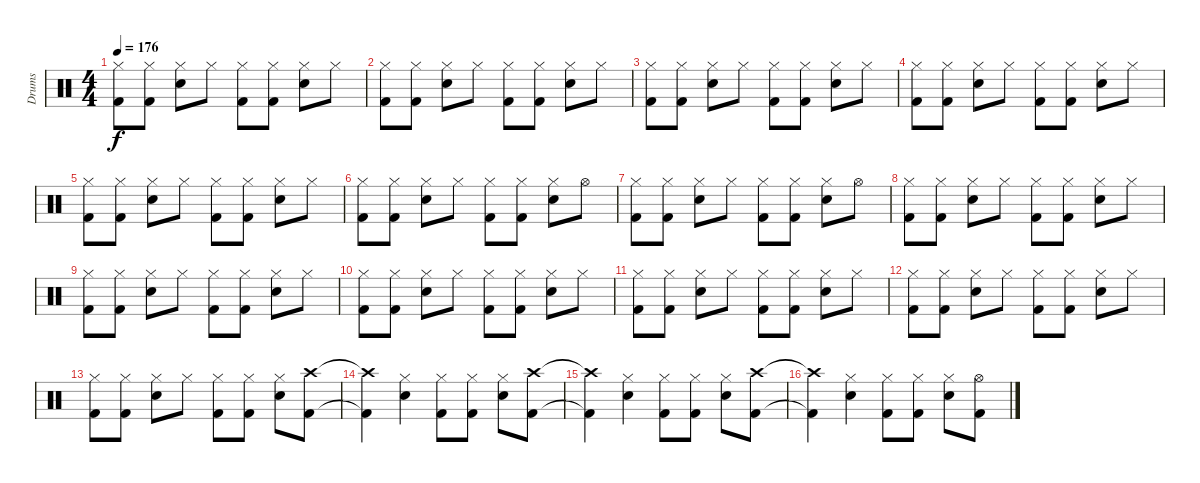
\track ("Drums" "Drums") {instrument percussion}
\staff {score}
\articulation defaults
\ts (4 4)
\tempo 176
\clef neutral
\ks c
("Hi-Hat (closed)" "Kick (hit) 2").8{dy f} ("Hi-Hat (closed)" "Kick (hit) 2").8 ("Hi-Hat (closed)" "Snare (hit) 2").8 "Hi-Hat (closed)".8 ("Hi-Hat (closed)" "Kick (hit) 2").8 ("Hi-Hat (closed)" "Kick (hit) 2").8 ("Hi-Hat (closed)" "Snare (hit) 2").8 "Hi-Hat (closed)".8 |
("Hi-Hat (closed)" "Kick (hit) 2").8 ("Hi-Hat (closed)" "Kick (hit) 2").8 ("Hi-Hat (closed)" "Snare (hit) 2").8 "Hi-Hat (closed)".8 ("Hi-Hat (closed)" "Kick (hit) 2").8 ("Hi-Hat (closed)" "Kick (hit) 2").8 ("Hi-Hat (closed)" "Snare (hit) 2").8 "Hi-Hat (closed)".8 |
("Hi-Hat (closed)" "Kick (hit) 2").8 ("Hi-Hat (closed)" "Kick (hit) 2").8 ("Hi-Hat (closed)" "Snare (hit) 2").8 "Hi-Hat (closed)".8 ("Hi-Hat (closed)" "Kick (hit) 2").8 ("Hi-Hat (closed)" "Kick (hit) 2").8 ("Hi-Hat (closed)" "Snare (hit) 2").8 "Hi-Hat (closed)".8 |
("Hi-Hat (closed)" "Kick (hit) 2").8 ("Hi-Hat (closed)" "Kick (hit) 2").8 ("Hi-Hat (closed)" "Snare (hit) 2").8 "Hi-Hat (closed)".8 ("Hi-Hat (closed)" "Kick (hit) 2").8 ("Hi-Hat (closed)" "Kick (hit) 2").8 ("Hi-Hat (closed)" "Snare (hit) 2").8 "Hi-Hat (closed)".8 |
("Hi-Hat (closed)" "Kick (hit) 2").8 ("Hi-Hat (closed)" "Kick (hit) 2").8 ("Hi-Hat (closed)" "Snare (hit) 2").8 "Hi-Hat (closed)".8 ("Hi-Hat (closed)" "Kick (hit) 2").8 ("Hi-Hat (closed)" "Kick (hit) 2").8 ("Hi-Hat (closed)" "Snare (hit) 2").8 "Hi-Hat (closed)".8 |
("Hi-Hat (closed)" "Kick (hit) 2").8 ("Hi-Hat (closed)" "Kick (hit) 2").8 ("Hi-Hat (closed)" "Snare (hit) 2").8 "Hi-Hat (closed)".8 ("Hi-Hat (closed)" "Kick (hit) 2").8 ("Hi-Hat (closed)" "Kick (hit) 2").8 ("Hi-Hat (closed)" "Snare (hit) 2").8 "Hi-Hat (open)".8 |
("Hi-Hat (closed)" "Kick (hit) 2").8 ("Hi-Hat (closed)" "Kick (hit) 2").8 ("Hi-Hat (closed)" "Snare (hit) 2").8 "Hi-Hat (closed)".8 ("Hi-Hat (closed)" "Kick (hit) 2").8 ("Hi-Hat (closed)" "Kick (hit) 2").8 ("Hi-Hat (closed)" "Snare (hit) 2").8 "Hi-Hat (open)".8 |
("Hi-Hat (closed)" "Kick (hit) 2").8 ("Hi-Hat (closed)" "Kick (hit) 2").8 ("Hi-Hat (closed)" "Snare (hit) 2").8 "Hi-Hat (closed)".8 ("Hi-Hat (closed)" "Kick (hit) 2").8 ("Hi-Hat (closed)" "Kick (hit) 2").8 ("Hi-Hat (closed)" "Snare (hit) 2").8 "Hi-Hat (closed)".8 |
("Hi-Hat (closed)" "Kick (hit) 2").8 ("Hi-Hat (closed)" "Kick (hit) 2").8 ("Hi-Hat (closed)" "Snare (hit) 2").8 "Hi-Hat (closed)".8 ("Hi-Hat (closed)" "Kick (hit) 2").8 ("Hi-Hat (closed)" "Kick (hit) 2").8 ("Hi-Hat (closed)" "Snare (hit) 2").8 "Hi-Hat (closed)".8 |
("Hi-Hat (closed)" "Kick (hit) 2").8 ("Hi-Hat (closed)" "Kick (hit) 2").8 ("Hi-Hat (closed)" "Snare (hit) 2").8 "Hi-Hat (closed)".8 ("Hi-Hat (closed)" "Kick (hit) 2").8 ("Hi-Hat (closed)" "Kick (hit) 2").8 ("Hi-Hat (closed)" "Snare (hit) 2").8 "Hi-Hat (closed)".8 |
("Hi-Hat (closed)" "Kick (hit) 2").8 ("Hi-Hat (closed)" "Kick (hit) 2").8 ("Hi-Hat (closed)" "Snare (hit) 2").8 "Hi-Hat (closed)".8 ("Hi-Hat (closed)" "Kick (hit) 2").8 ("Hi-Hat (closed)" "Kick (hit) 2").8 ("Hi-Hat (closed)" "Snare (hit) 2").8 "Hi-Hat (closed)".8 |
("Hi-Hat (closed)" "Kick (hit) 2").8 ("Hi-Hat (closed)" "Kick (hit) 2").8 ("Hi-Hat (closed)" "Snare (hit) 2").8 "Hi-Hat (closed)".8 ("Hi-Hat (closed)" "Kick (hit) 2").8 ("Hi-Hat (closed)" "Kick (hit) 2").8 ("Hi-Hat (closed)" "Snare (hit) 2").8 "Hi-Hat (closed)".8 |
("Hi-Hat (closed)" "Kick (hit) 2").8 ("Hi-Hat (closed)" "Kick (hit) 2").8 ("Hi-Hat (closed)" "Snare (hit) 2").8 "Hi-Hat (closed)".8 ("Hi-Hat (closed)" "Kick (hit) 2").8 ("Hi-Hat (closed)" "Kick (hit) 2").8 ("Hi-Hat (closed)" "Snare (hit) 2").8 ("Crash high (hit)" "Kick (hit) 2").8 |
("Crash high (hit)"{t} "Kick (hit) 2"{t}).4 ("Hi-Hat (closed)" "Snare (hit) 2").4 ("Hi-Hat (closed)" "Kick (hit) 2").8 ("Hi-Hat (closed)" "Kick (hit) 2").8 ("Hi-Hat (closed)" "Snare (hit) 2").8 ("Crash high (hit)" "Kick (hit) 2").8 |
("Crash high (hit)"{t} "Kick (hit) 2"{t}).4 ("Hi-Hat (closed)" "Snare (hit) 2").4 ("Hi-Hat (closed)" "Kick (hit) 2").8 ("Hi-Hat (closed)" "Kick (hit) 2").8 ("Hi-Hat (closed)" "Snare (hit) 2").8 ("Crash high (hit)" "Kick (hit) 2").8 |
("Crash high (hit)"{t} "Kick (hit) 2"{t}).4 ("Hi-Hat (closed)" "Snare (hit) 2").4 ("Hi-Hat (closed)" "Kick (hit) 2").8 ("Hi-Hat (closed)" "Kick (hit) 2").8 ("Hi-Hat (closed)" "Snare (hit) 2").8 ("Hi-Hat (open)" "Kick (hit) 2").8
